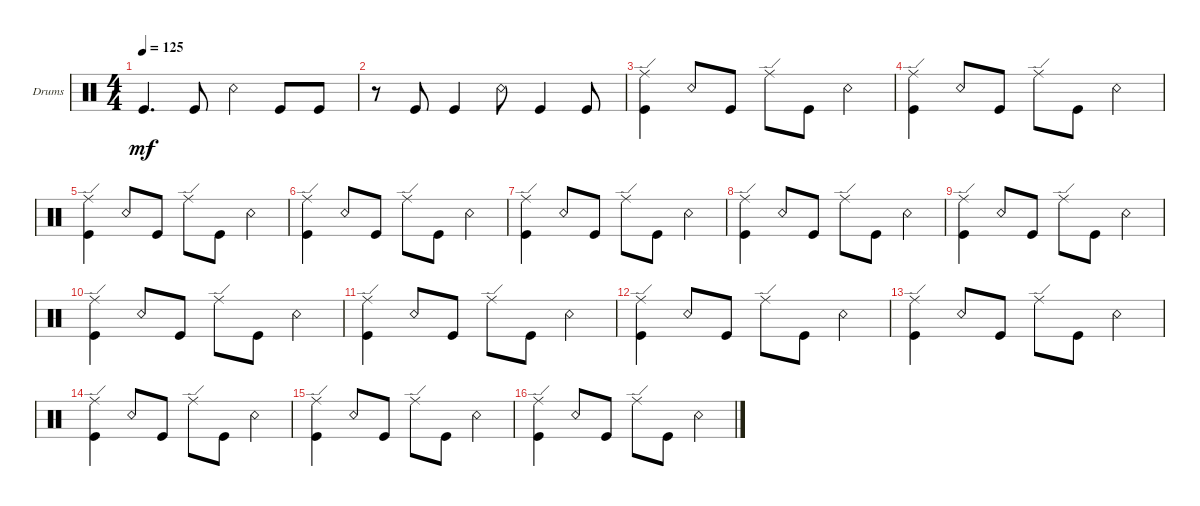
\defaultSystemsLayout 4
\bracketExtendMode groupsimilarinstruments
\firstSystemTrackNameOrientation horizontal
\otherSystemsTrackNameOrientation horizontal
\track ("Drumkit" "Drums") {instrument percussion}
\staff {score}
\articulation defaults
\ts (4 4)
\tempo 125
\clef neutral
\ks c "Kick (hit)".4{d dy mf} "Kick (hit)".8 "Snare (rim shot)".4 "Kick (hit)".8 "Kick (hit)".8
|
r.8 "Kick (hit)".8 "Kick (hit)".4 "Snare (rim shot)".8 "Kick (hit)".4 "Kick (hit)".8 |
("Kick (hit)" "Ride (edge)").4 "Snare (rim shot)".8 "Kick (hit)".8 "Ride (edge)".8 "Kick (hit)".8 "Snare (rim shot)".4 |
("Kick (hit)" "Ride (edge)").4 "Snare (rim shot)".8 "Kick (hit)".8 "Ride (edge)".8 "Kick (hit)".8 "Snare (rim shot)".4 |
("Kick (hit)" "Ride (edge)").4 "Snare (rim shot)".8 "Kick (hit)".8 "Ride (edge)".8 "Kick (hit)".8 "Snare (rim shot)".4 |
("Kick (hit)" "Ride (edge)").4 "Snare (rim shot)".8 "Kick (hit)".8 "Ride (edge)".8 "Kick (hit)".8 "Snare (rim shot)".4 |
("Kick (hit)" "Ride (edge)").4 "Snare (rim shot)".8 "Kick (hit)".8 "Ride (edge)".8 "Kick (hit)".8 "Snare (rim shot)".4 |
("Kick (hit)" "Ride (edge)").4 "Snare (rim shot)".8 "Kick (hit)".8 "Ride (edge)".8 "Kick (hit)".8 "Snare (rim shot)".4 |
("Kick (hit)" "Ride (edge)").4 "Snare (rim shot)".8 "Kick (hit)".8 "Ride (edge)".8 "Kick (hit)".8 "Snare (rim shot)".4 |
("Kick (hit)" "Ride (edge)").4 "Snare (rim shot)".8 "Kick (hit)".8 "Ride (edge)".8 "Kick (hit)".8 "Snare (rim shot)".4 |
("Kick (hit)" "Ride (edge)").4 "Snare (rim shot)".8 "Kick (hit)".8 "Ride (edge)".8 "Kick (hit)".8 "Snare (rim shot)".4 |
("Kick (hit)" "Ride (edge)").4 "Snare (rim shot)".8 "Kick (hit)".8 "Ride (edge)".8 "Kick (hit)".8 "Snare (rim shot)".4 |
("Kick (hit)" "Ride (edge)").4 "Snare (rim shot)".8 "Kick (hit)".8 "Ride (edge)".8 "Kick (hit)".8 "Snare (rim shot)".4 |
("Kick (hit)" "Ride (edge)").4 "Snare (rim shot)".8 "Kick (hit)".8 "Ride (edge)".8 "Kick (hit)".8 "Snare (rim shot)".4 |
("Kick (hit)" "Ride (edge)").4 "Snare (rim shot)".8 "Kick (hit)".8 "Ride (edge)".8 "Kick (hit)".8 "Snare (rim shot)".4 |
("Kick (hit)" "Ride (edge)").4 "Snare (rim shot)".8 "Kick (hit)".8 "Ride (edge)".8 "Kick (hit)".8 "Snare (rim shot)".4
